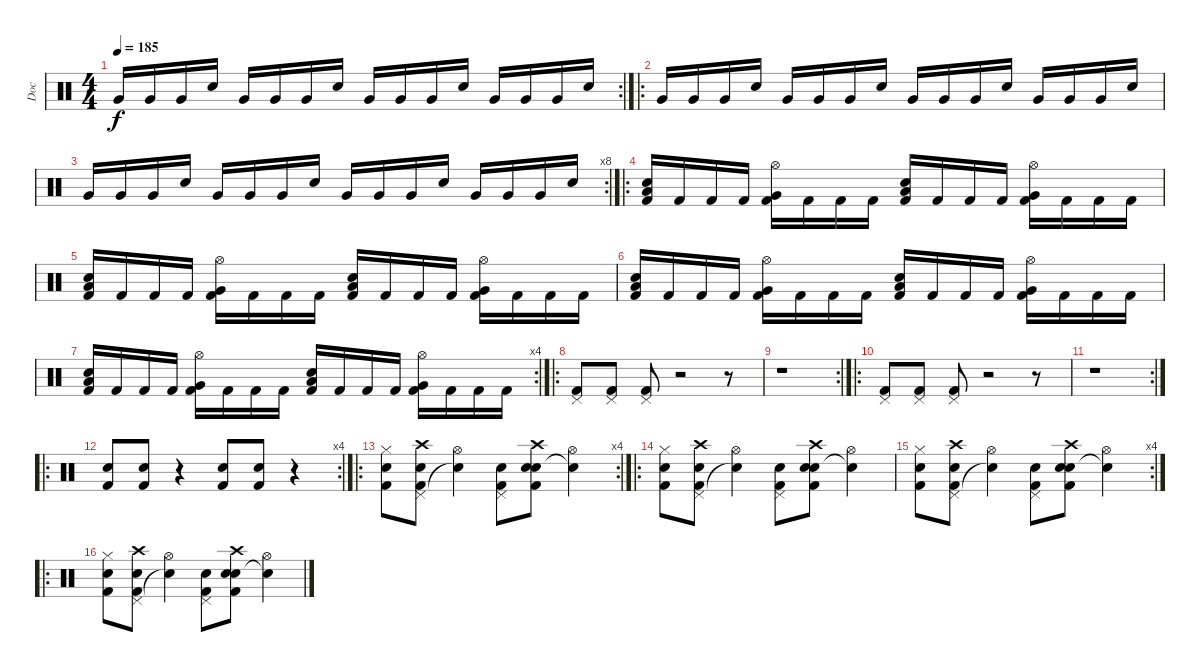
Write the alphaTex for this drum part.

\track ("Doc" "Doc") {instrument percussion}
\staff {score}
\articulation defaults
\rc 2
\ts (4 4)
\tempo 185
\clef neutral
\ks c "Very Low Tom (hit)".16{dy f} "Very Low Tom (hit)".16 "Very Low Tom (hit)".16 "Snare (hit) 2".16 "Very Low Tom (hit)".16 "Very Low Tom (hit)".16 "Very Low Tom (hit)".16 "Snare (hit) 2".16 "Very Low Tom (hit)".16 "Very Low Tom (hit)".16 "Very Low Tom (hit)".16 "Snare (hit) 2".16 "Very Low Tom (hit)".16 "Very Low Tom (hit)".16 "Very Low Tom (hit)".16 "Snare (hit) 2".16
|
\ro "Very Low Tom (hit)".16 "Very Low Tom (hit)".16 "Very Low Tom (hit)".16 "Snare (hit) 2".16 "Very Low Tom (hit)".16 "Very Low Tom (hit)".16 "Very Low Tom (hit)".16 "Snare (hit) 2".16 "Very Low Tom (hit)".16 "Very Low Tom (hit)".16 "Very Low Tom (hit)".16 "Snare (hit) 2".16 "Very Low Tom (hit)".16 "Very Low Tom (hit)".16 "Very Low Tom (hit)".16 "Snare (hit) 2".16
|
\rc 8 "Very Low Tom (hit)".16 "Very Low Tom (hit)".16 "Very Low Tom (hit)".16 "Snare (hit) 2".16 "Very Low Tom (hit)".16 "Very Low Tom (hit)".16 "Very Low Tom (hit)".16 "Snare (hit) 2".16 "Very Low Tom (hit)".16 "Very Low Tom (hit)".16 "Very Low Tom (hit)".16 "Snare (hit) 2".16 "Very Low Tom (hit)".16 "Very Low Tom (hit)".16 "Very Low Tom (hit)".16 "Snare (hit) 2".16
|
\ro
("Low Floor Tom (hit)" "Snare (hit) 2" "Kick (hit) 2").16 "Kick (hit) 2".16 "Kick (hit) 2".16 "Kick (hit) 2".16 ("Very Low Tom (hit)" "Hi-Hat (open)" "Kick (hit) 2").16 "Kick (hit) 2".16 "Kick (hit) 2".16 "Kick (hit) 2".16 ("Low Floor Tom (hit)" "Snare (hit) 2" "Kick (hit) 2").16 "Kick (hit) 2".16 "Kick (hit) 2".16 "Kick (hit) 2".16 ("Very Low Tom (hit)" "Hi-Hat (open)" "Kick (hit) 2").16 "Kick (hit) 2".16 "Kick (hit) 2".16 "Kick (hit) 2".16 |
("Low Floor Tom (hit)" "Snare (hit) 2" "Kick (hit) 2").16 "Kick (hit) 2".16 "Kick (hit) 2".16 "Kick (hit) 2".16 ("Very Low Tom (hit)" "Hi-Hat (open)" "Kick (hit) 2").16 "Kick (hit) 2".16 "Kick (hit) 2".16 "Kick (hit) 2".16 ("Low Floor Tom (hit)" "Snare (hit) 2" "Kick (hit) 2").16 "Kick (hit) 2".16 "Kick (hit) 2".16 "Kick (hit) 2".16 ("Very Low Tom (hit)" "Hi-Hat (open)" "Kick (hit) 2").16 "Kick (hit) 2".16 "Kick (hit) 2".16 "Kick (hit) 2".16 |
("Low Floor Tom (hit)" "Snare (hit) 2" "Kick (hit) 2").16 "Kick (hit) 2".16 "Kick (hit) 2".16 "Kick (hit) 2".16 ("Very Low Tom (hit)" "Hi-Hat (open)" "Kick (hit) 2").16 "Kick (hit) 2".16 "Kick (hit) 2".16 "Kick (hit) 2".16 ("Low Floor Tom (hit)" "Snare (hit) 2" "Kick (hit) 2").16 "Kick (hit) 2".16 "Kick (hit) 2".16 "Kick (hit) 2".16 ("Very Low Tom (hit)" "Hi-Hat (open)" "Kick (hit) 2").16 "Kick (hit) 2".16 "Kick (hit) 2".16 "Kick (hit) 2".16 |
\rc 4
("Low Floor Tom (hit)" "Snare (hit) 2" "Kick (hit) 2").16 "Kick (hit) 2".16 "Kick (hit) 2".16 "Kick (hit) 2".16 ("Very Low Tom (hit)" "Hi-Hat (open)" "Kick (hit) 2").16 "Kick (hit) 2".16 "Kick (hit) 2".16 "Kick (hit) 2".16 ("Low Floor Tom (hit)" "Snare (hit) 2" "Kick (hit) 2").16 "Kick (hit) 2".16 "Kick (hit) 2".16 "Kick (hit) 2".16 ("Very Low Tom (hit)" "Hi-Hat (open)" "Kick (hit) 2").16 "Kick (hit) 2".16 "Kick (hit) 2".16 "Kick (hit) 2".16 |
\ro
("Pedal Hi-Hat (hit)" "Kick (hit) 2").8 ("Pedal Hi-Hat (hit)" "Kick (hit) 2").8 ("Pedal Hi-Hat (hit)" "Kick (hit) 2").8 r.2 r.8 |
\rc 2
r.1 |
\ro
("Pedal Hi-Hat (hit)" "Kick (hit) 2").8 ("Pedal Hi-Hat (hit)" "Kick (hit) 2").8 ("Pedal Hi-Hat (hit)" "Kick (hit) 2").8 r.2 r.8 |
\rc 2
r.1 |
\ro
\rc 4
("Snare (hit) 2" "Kick (hit) 2").8 ("Snare (hit) 2" "Kick (hit) 2").8 r.4 ("Snare (hit) 2" "Kick (hit) 2").8 ("Snare (hit) 2" "Kick (hit) 2").8 r.4 |
\ro
\rc 4
("Hi-Hat (closed)" "Snare (hit) 2" "Kick (hit) 2").8 ("Pedal Hi-Hat (hit)" "Crash high (hit)" "Snare (hit) 2" "Kick (hit) 2").8 ("Snare (hit)"{t} "Hi-Hat (open)").4 ("Pedal Hi-Hat (hit)" "Snare (hit) 2" "Kick (hit) 2").8 ("Snare (hit)" "Crash high (hit)" "Snare (hit) 2" "Kick (hit) 2").8 ("Snare (hit)"{t} "Hi-Hat (open)").4 |
\ro
("Hi-Hat (closed)" "Snare (hit) 2" "Kick (hit) 2").8 ("Pedal Hi-Hat (hit)" "Crash high (hit)" "Snare (hit) 2" "Kick (hit) 2").8 ("Snare (hit)"{t} "Hi-Hat (open)").4 ("Pedal Hi-Hat (hit)" "Snare (hit) 2" "Kick (hit) 2").8 ("Snare (hit)" "Crash high (hit)" "Snare (hit) 2" "Kick (hit) 2").8 ("Snare (hit)"{t} "Hi-Hat (open)").4 |
\rc 4
("Hi-Hat (closed)" "Snare (hit) 2" "Kick (hit) 2").8 ("Pedal Hi-Hat (hit)" "Crash high (hit)" "Snare (hit) 2" "Kick (hit) 2").8 ("Snare (hit)"{t} "Hi-Hat (open)").4 ("Pedal Hi-Hat (hit)" "Snare (hit) 2" "Kick (hit) 2").8 ("Snare (hit)" "Crash high (hit)" "Snare (hit) 2" "Kick (hit) 2").8 ("Snare (hit)"{t} "Hi-Hat (open)").4 |
\ro
("Hi-Hat (closed)" "Snare (hit) 2" "Kick (hit) 2").8 ("Pedal Hi-Hat (hit)" "Crash high (hit)" "Snare (hit) 2" "Kick (hit) 2").8 ("Snare (hit)"{t} "Hi-Hat (open)").4 ("Pedal Hi-Hat (hit)" "Snare (hit) 2" "Kick (hit) 2").8 ("Snare (hit)" "Crash high (hit)" "Snare (hit) 2" "Kick (hit) 2").8 ("Snare (hit)"{t} "Hi-Hat (open)").4
